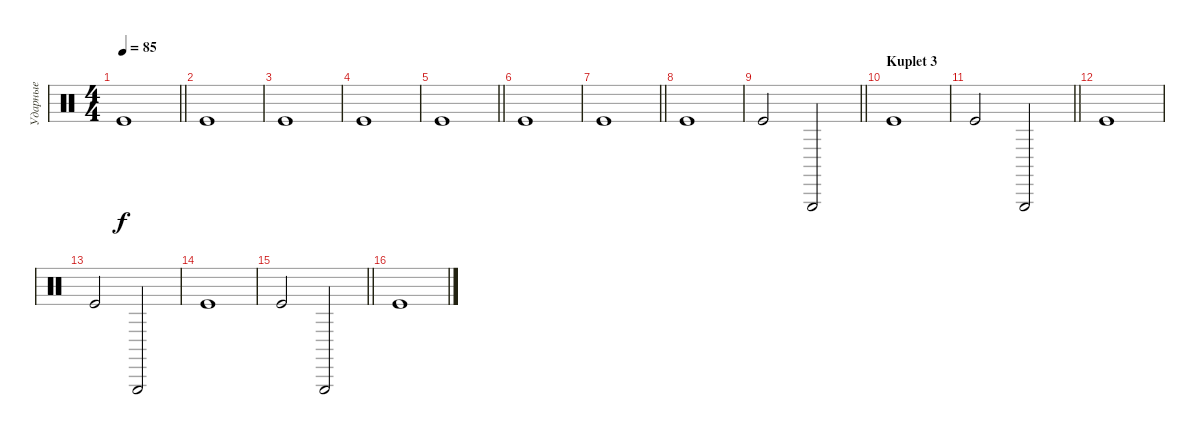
\track ("Ударные" "Ударные") {instrument percussion}
\staff {score}
\articulation defaults
\ts (4 4)
\tempo 85
\clef neutral
\barLineRight lightlight
\ks c "Kick (hit)".1{dy f}
|
"Kick (hit)".1 |
"Kick (hit)".1 |
"Kick (hit)".1 |
\barLineRight lightlight "Kick (hit)".1
|
"Kick (hit)".1 |
\barLineRight lightlight "Kick (hit)".1
|
"Kick (hit)".1 |
\barLineRight lightlight "Kick (hit)".2 "Triangle (hit)".2
|
\section ("" "Kuplet 3")
"Kick (hit)".1 |
\barLineRight lightlight "Kick (hit)".2 "Triangle (hit)".2
|
"Kick (hit)".1 |
"Kick (hit)".2 "Triangle (hit)".2 |
"Kick (hit)".1 |
\barLineRight lightlight "Kick (hit)".2 "Triangle (hit)".2
|
"Kick (hit)".1
